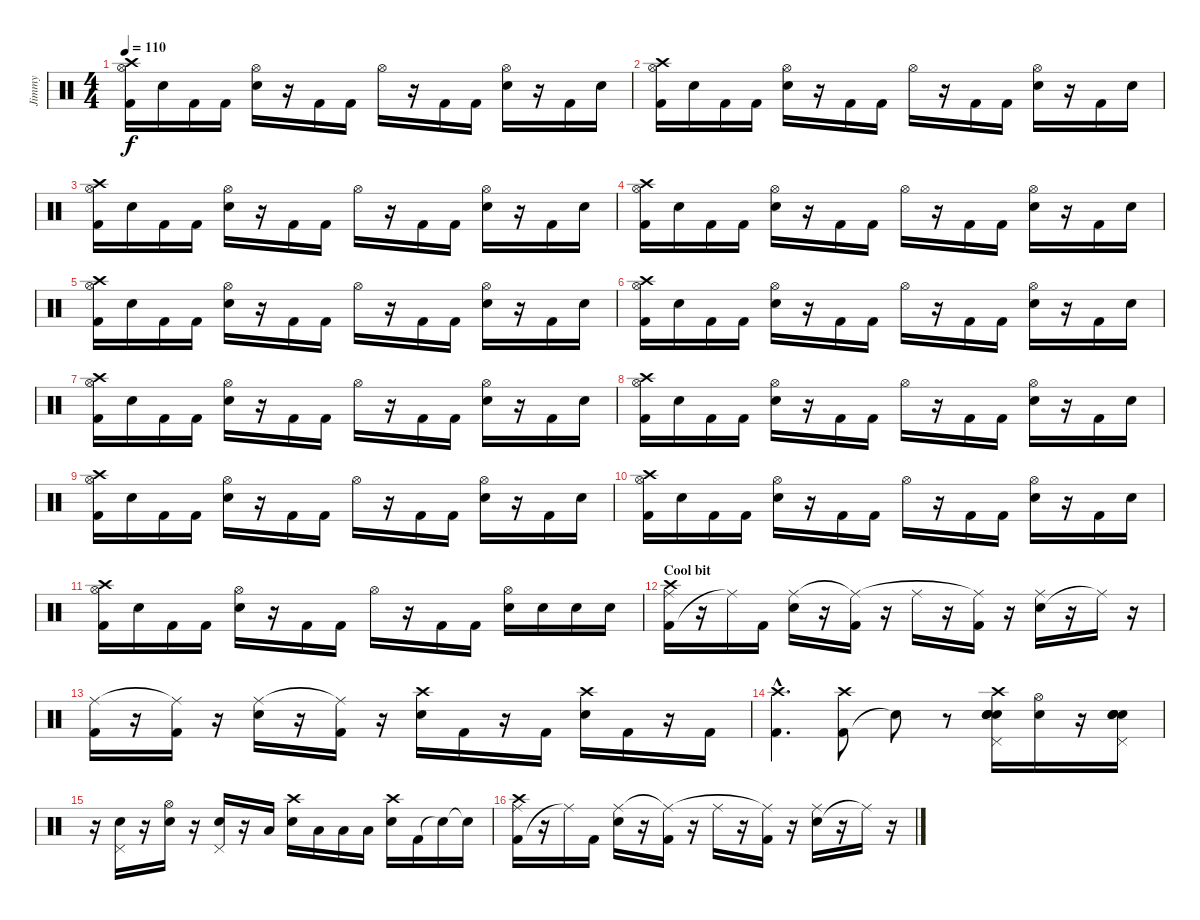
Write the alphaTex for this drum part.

\track ("Jimmy" "Jimmy") {instrument percussion}
\staff {score}
\articulation defaults
\ts (4 4)
\tempo 110
\clef neutral
\ks c
("Crash high (hit)" "Hi-Hat (open)" "Kick (hit) 2").16{dy f} "Electric Snare (hit)".16 "Kick (hit) 2".16 "Kick (hit) 2".16 ("Hi-Hat (open)" "Electric Snare (hit)").16 r.16 "Kick (hit) 2".16 "Kick (hit) 2".16 "Hi-Hat (open)".16 r.16 "Kick (hit) 2".16 "Kick (hit) 2".16 ("Hi-Hat (open)" "Electric Snare (hit)").16 r.16 "Kick (hit) 2".16 "Electric Snare (hit)".16 |
("Crash high (hit)" "Hi-Hat (open)" "Kick (hit) 2").16 "Electric Snare (hit)".16 "Kick (hit) 2".16 "Kick (hit) 2".16 ("Hi-Hat (open)" "Electric Snare (hit)").16 r.16 "Kick (hit) 2".16 "Kick (hit) 2".16 "Hi-Hat (open)".16 r.16 "Kick (hit) 2".16 "Kick (hit) 2".16 ("Hi-Hat (open)" "Electric Snare (hit)").16 r.16 "Kick (hit) 2".16 "Electric Snare (hit)".16 |
("Crash high (hit)" "Hi-Hat (open)" "Kick (hit) 2").16 "Electric Snare (hit)".16 "Kick (hit) 2".16 "Kick (hit) 2".16 ("Hi-Hat (open)" "Electric Snare (hit)").16 r.16 "Kick (hit) 2".16 "Kick (hit) 2".16 "Hi-Hat (open)".16 r.16 "Kick (hit) 2".16 "Kick (hit) 2".16 ("Hi-Hat (open)" "Electric Snare (hit)").16 r.16 "Kick (hit) 2".16 "Electric Snare (hit)".16 |
("Crash high (hit)" "Hi-Hat (open)" "Kick (hit) 2").16 "Electric Snare (hit)".16 "Kick (hit) 2".16 "Kick (hit) 2".16 ("Hi-Hat (open)" "Electric Snare (hit)").16 r.16 "Kick (hit) 2".16 "Kick (hit) 2".16 "Hi-Hat (open)".16 r.16 "Kick (hit) 2".16 "Kick (hit) 2".16 ("Hi-Hat (open)" "Electric Snare (hit)").16 r.16 "Kick (hit) 2".16 "Electric Snare (hit)".16 |
("Crash high (hit)" "Hi-Hat (open)" "Kick (hit) 2").16 "Electric Snare (hit)".16 "Kick (hit) 2".16 "Kick (hit) 2".16 ("Hi-Hat (open)" "Electric Snare (hit)").16 r.16 "Kick (hit) 2".16 "Kick (hit) 2".16 "Hi-Hat (open)".16 r.16 "Kick (hit) 2".16 "Kick (hit) 2".16 ("Hi-Hat (open)" "Electric Snare (hit)").16 r.16 "Kick (hit) 2".16 "Electric Snare (hit)".16 |
("Crash high (hit)" "Hi-Hat (open)" "Kick (hit) 2").16 "Electric Snare (hit)".16 "Kick (hit) 2".16 "Kick (hit) 2".16 ("Hi-Hat (open)" "Electric Snare (hit)").16 r.16 "Kick (hit) 2".16 "Kick (hit) 2".16 "Hi-Hat (open)".16 r.16 "Kick (hit) 2".16 "Kick (hit) 2".16 ("Hi-Hat (open)" "Electric Snare (hit)").16 r.16 "Kick (hit) 2".16 "Electric Snare (hit)".16 |
("Crash high (hit)" "Hi-Hat (open)" "Kick (hit) 2").16 "Electric Snare (hit)".16 "Kick (hit) 2".16 "Kick (hit) 2".16 ("Hi-Hat (open)" "Electric Snare (hit)").16 r.16 "Kick (hit) 2".16 "Kick (hit) 2".16 "Hi-Hat (open)".16 r.16 "Kick (hit) 2".16 "Kick (hit) 2".16 ("Hi-Hat (open)" "Electric Snare (hit)").16 r.16 "Kick (hit) 2".16 "Electric Snare (hit)".16 |
("Crash high (hit)" "Hi-Hat (open)" "Kick (hit) 2").16 "Electric Snare (hit)".16 "Kick (hit) 2".16 "Kick (hit) 2".16 ("Hi-Hat (open)" "Electric Snare (hit)").16 r.16 "Kick (hit) 2".16 "Kick (hit) 2".16 "Hi-Hat (open)".16 r.16 "Kick (hit) 2".16 "Kick (hit) 2".16 ("Hi-Hat (open)" "Electric Snare (hit)").16 r.16 "Kick (hit) 2".16 "Electric Snare (hit)".16 |
("Crash high (hit)" "Hi-Hat (open)" "Kick (hit) 2").16 "Electric Snare (hit)".16 "Kick (hit) 2".16 "Kick (hit) 2".16 ("Hi-Hat (open)" "Electric Snare (hit)").16 r.16 "Kick (hit) 2".16 "Kick (hit) 2".16 "Hi-Hat (open)".16 r.16 "Kick (hit) 2".16 "Kick (hit) 2".16 ("Hi-Hat (open)" "Electric Snare (hit)").16 r.16 "Kick (hit) 2".16 "Electric Snare (hit)".16 |
("Crash high (hit)" "Hi-Hat (open)" "Kick (hit) 2").16 "Electric Snare (hit)".16 "Kick (hit) 2".16 "Kick (hit) 2".16 ("Hi-Hat (open)" "Electric Snare (hit)").16 r.16 "Kick (hit) 2".16 "Kick (hit) 2".16 "Hi-Hat (open)".16 r.16 "Kick (hit) 2".16 "Kick (hit) 2".16 ("Hi-Hat (open)" "Electric Snare (hit)").16 r.16 "Kick (hit) 2".16 "Electric Snare (hit)".16 |
("Crash high (hit)" "Hi-Hat (open)" "Kick (hit) 2").16 "Electric Snare (hit)".16 "Kick (hit) 2".16 "Kick (hit) 2".16 ("Hi-Hat (open)" "Electric Snare (hit)").16 r.16 "Kick (hit) 2".16 "Kick (hit) 2".16 "Hi-Hat (open)".16 r.16 "Kick (hit) 2".16 "Kick (hit) 2".16 ("Hi-Hat (open)" "Electric Snare (hit)").16 "Electric Snare (hit)".16 "Electric Snare (hit)".16 "Electric Snare (hit)".16 |
\section ("" "Cool bit")
("Kick (hit) 2" "Ride (middle)" "Crash high (hit)").16 r.16 "Ride (middle)"{t}.16 "Kick (hit) 2".16 ("Electric Snare (hit)" "Ride (middle)").16 r.16 ("Kick (hit) 2" "Ride (middle)"{t}).16 r.16 "Ride (middle)".16 r.16 ("Kick (hit) 2" "Ride (middle)"{t}).16 r.16 ("Electric Snare (hit)" "Ride (middle)").16 r.16 "Ride (middle)"{t}.16 r.16 |
("Kick (hit) 2" "Ride (middle)").16 r.16 ("Kick (hit) 2" "Ride (middle)"{t}).16 r.16 ("Electric Snare (hit)" "Ride (middle)").16 r.16 ("Kick (hit) 2" "Ride (middle)"{t}).16 r.16 ("Electric Snare (hit)" "Crash high (hit)").16 "Kick (hit) 2".16 r.16 "Kick (hit) 2".16 ("Electric Snare (hit)" "Crash high (hit)").16 "Kick (hit) 2".16 r.16 "Kick (hit) 2".16 |
("Kick (hit) 2"{hac} "Crash high (hit)"{hac}).4{d} ("Kick (hit) 2" "Crash high (hit)").8 "Electric Snare (hit)"{t}.8 r.8 ("Electric Snare (hit)" "Crash high (hit)" "Pedal Hi-Hat (hit)" "Electric Snare (hit)" "Electric Snare (hit)" "Electric Snare (hit)").16 ("Electric Snare (hit)" "Hi-Hat (open)").16 r.16 ("Electric Snare (hit)" "Pedal Hi-Hat (hit)" "Electric Snare (hit)" "Electric Snare (hit)" "Electric Snare (hit)").16 |
r.16 ("Electric Snare (hit)" "Pedal Hi-Hat (hit)").16 r.16 ("Electric Snare (hit)" "Hi-Hat (open)").16 r.16 ("Electric Snare (hit)" "Pedal Hi-Hat (hit)").16 r.16 "Low Tom (hit)".16 ("Electric Snare (hit)" "Crash high (hit)").16 "Low Tom (hit)".16 "Low Tom (hit)".16 "Low Tom (hit)".16 ("Electric Snare (hit)" "Crash high (hit)").16 "Kick (hit) 2".16 "Snare (hit)"{t}.16 "Snare (hit)"{t}.16 |
("Kick (hit) 2" "Ride (middle)" "Crash high (hit)").16 r.16 "Ride (middle)"{t}.16 "Kick (hit) 2".16 ("Electric Snare (hit)" "Ride (middle)").16 r.16 ("Kick (hit) 2" "Ride (middle)"{t}).16 r.16 "Ride (middle)".16 r.16 ("Kick (hit) 2" "Ride (middle)"{t}).16 r.16 ("Electric Snare (hit)" "Ride (middle)").16 r.16 "Ride (middle)"{t}.16 r.16
